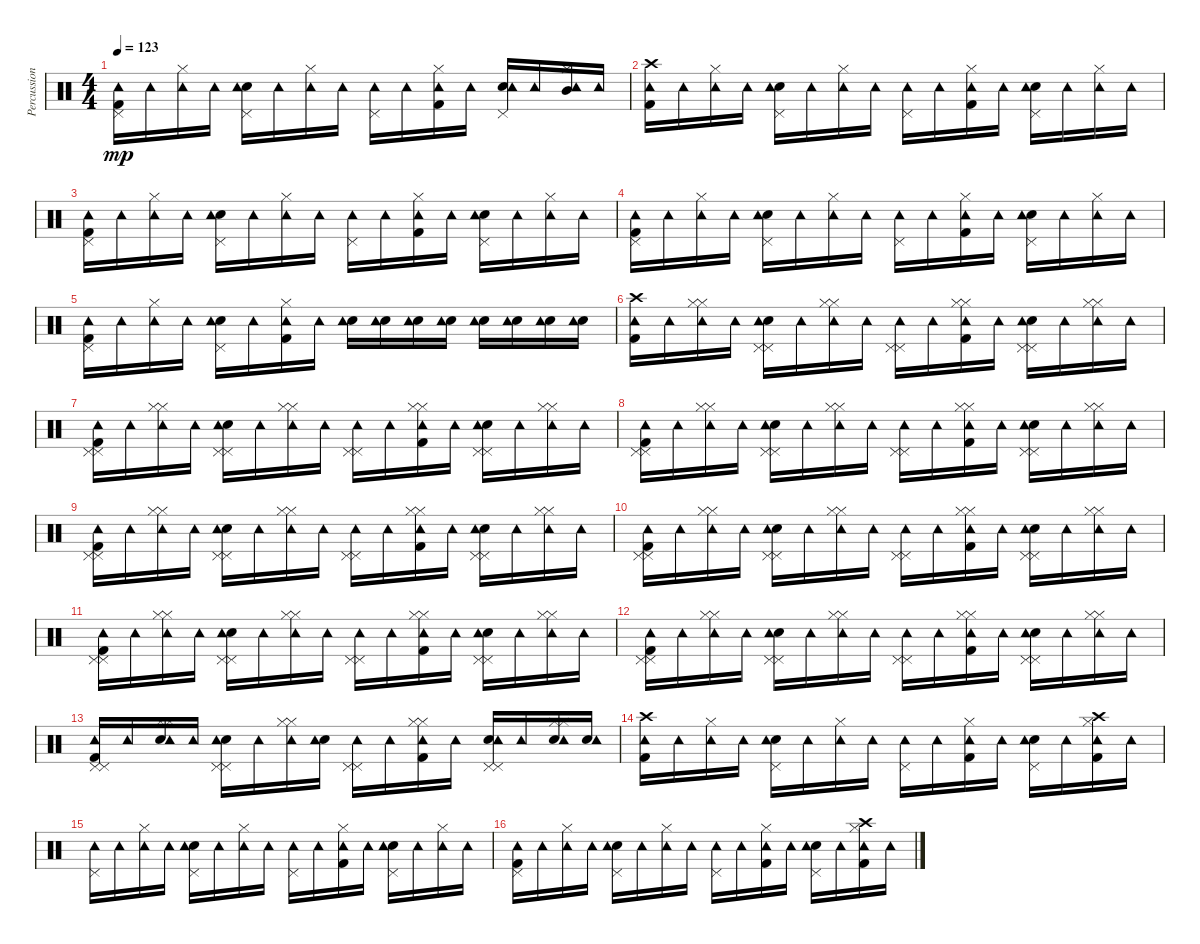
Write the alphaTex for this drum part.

\track ("Percussions" "Percussion") {instrument percussion}
\staff {score}
\articulation defaults
\ts (4 4)
\tempo 123
\clef neutral
\ks c
("Kick (hit) 2" "Pedal Hi-Hat (hit)" "Tambourine (hit)").16{dy mp} "Tambourine (hit)".16 ("Hi-Hat (closed)" "Tambourine (hit)").16 "Tambourine (hit)".16 ("Snare (hit) 2" "Pedal Hi-Hat (hit)" "Tambourine (hit)").16 "Tambourine (hit)".16 ("Hi-Hat (closed)" "Tambourine (hit)").16 "Tambourine (hit)".16 ("Pedal Hi-Hat (hit)" "Tambourine (hit)").16 "Tambourine (hit)".16 ("Kick (hit) 2" "Hi-Hat (closed)" "Tambourine (hit)").16 "Tambourine (hit)".16 ("Snare (hit) 2" "Pedal Hi-Hat (hit)" "Tambourine (hit)").16 "Tambourine (hit)".16 ("Hi-Hat (closed)" "Mid Tom (hit)" "Tambourine (hit)").16 "Tambourine (hit)".16 |
("Kick (hit) 2" "Crash high (hit)" "Tambourine (hit)").16 "Tambourine (hit)".16 ("Hi-Hat (closed)" "Tambourine (hit)").16 "Tambourine (hit)".16 ("Snare (hit) 2" "Pedal Hi-Hat (hit)" "Tambourine (hit)").16 "Tambourine (hit)".16 ("Hi-Hat (closed)" "Tambourine (hit)").16 "Tambourine (hit)".16 ("Pedal Hi-Hat (hit)" "Tambourine (hit)").16 "Tambourine (hit)".16 ("Kick (hit) 2" "Hi-Hat (closed)" "Tambourine (hit)").16 "Tambourine (hit)".16 ("Snare (hit) 2" "Pedal Hi-Hat (hit)" "Tambourine (hit)").16 "Tambourine (hit)".16 ("Hi-Hat (closed)" "Tambourine (hit)").16 "Tambourine (hit)".16 |
("Kick (hit) 2" "Pedal Hi-Hat (hit)" "Tambourine (hit)").16 "Tambourine (hit)".16 ("Hi-Hat (closed)" "Tambourine (hit)").16 "Tambourine (hit)".16 ("Snare (hit) 2" "Pedal Hi-Hat (hit)" "Tambourine (hit)").16 "Tambourine (hit)".16 ("Hi-Hat (closed)" "Tambourine (hit)").16 "Tambourine (hit)".16 ("Pedal Hi-Hat (hit)" "Tambourine (hit)").16 "Tambourine (hit)".16 ("Kick (hit) 2" "Hi-Hat (closed)" "Tambourine (hit)").16 "Tambourine (hit)".16 ("Snare (hit) 2" "Pedal Hi-Hat (hit)" "Tambourine (hit)").16 "Tambourine (hit)".16 ("Hi-Hat (closed)" "Tambourine (hit)").16 "Tambourine (hit)".16 |
("Kick (hit) 2" "Pedal Hi-Hat (hit)" "Tambourine (hit)").16 "Tambourine (hit)".16 ("Hi-Hat (closed)" "Tambourine (hit)").16 "Tambourine (hit)".16 ("Snare (hit) 2" "Pedal Hi-Hat (hit)" "Tambourine (hit)").16 "Tambourine (hit)".16 ("Hi-Hat (closed)" "Tambourine (hit)").16 "Tambourine (hit)".16 ("Pedal Hi-Hat (hit)" "Tambourine (hit)").16 "Tambourine (hit)".16 ("Kick (hit) 2" "Hi-Hat (closed)" "Tambourine (hit)").16 "Tambourine (hit)".16 ("Snare (hit) 2" "Pedal Hi-Hat (hit)" "Tambourine (hit)").16 "Tambourine (hit)".16 ("Hi-Hat (closed)" "Tambourine (hit)").16 "Tambourine (hit)".16 |
("Kick (hit) 2" "Pedal Hi-Hat (hit)" "Tambourine (hit)").16 "Tambourine (hit)".16 ("Hi-Hat (closed)" "Tambourine (hit)").16 "Tambourine (hit)".16 ("Snare (hit) 2" "Pedal Hi-Hat (hit)" "Tambourine (hit)").16 "Tambourine (hit)".16 ("Kick (hit) 2" "Hi-Hat (closed)" "Tambourine (hit)").16 "Tambourine (hit)".16 ("Snare (hit) 2" "Tambourine (hit)").16 ("Snare (hit) 2" "Tambourine (hit)").16 ("Snare (hit) 2" "Tambourine (hit)").16 ("Snare (hit) 2" "Tambourine (hit)").16 ("Snare (hit) 2" "Tambourine (hit)").16 ("Snare (hit) 2" "Tambourine (hit)").16 ("Snare (hit) 2" "Tambourine (hit)").16 ("Snare (hit) 2" "Tambourine (hit)").16 |
("Kick (hit) 2" "Crash high (hit)" "Tambourine (hit)").16 "Tambourine (hit)".16 ("Hi-Hat (closed)" "Hi-Hat (closed)" "Tambourine (hit)").16 "Tambourine (hit)".16 ("Snare (hit) 2" "Pedal Hi-Hat (hit)" "Pedal Hi-Hat (hit)" "Tambourine (hit)").16 "Tambourine (hit)".16 ("Hi-Hat (closed)" "Hi-Hat (closed)" "Tambourine (hit)").16 "Tambourine (hit)".16 ("Pedal Hi-Hat (hit)" "Pedal Hi-Hat (hit)" "Tambourine (hit)").16 "Tambourine (hit)".16 ("Kick (hit) 2" "Hi-Hat (closed)" "Hi-Hat (closed)" "Tambourine (hit)").16 "Tambourine (hit)".16 ("Snare (hit) 2" "Pedal Hi-Hat (hit)" "Pedal Hi-Hat (hit)" "Tambourine (hit)").16 "Tambourine (hit)".16 ("Hi-Hat (closed)" "Hi-Hat (closed)" "Tambourine (hit)").16 "Tambourine (hit)".16 |
("Kick (hit) 2" "Pedal Hi-Hat (hit)" "Pedal Hi-Hat (hit)" "Tambourine (hit)").16 "Tambourine (hit)".16 ("Hi-Hat (closed)" "Hi-Hat (closed)" "Tambourine (hit)").16 "Tambourine (hit)".16 ("Snare (hit) 2" "Pedal Hi-Hat (hit)" "Pedal Hi-Hat (hit)" "Tambourine (hit)").16 "Tambourine (hit)".16 ("Hi-Hat (closed)" "Hi-Hat (closed)" "Tambourine (hit)").16 "Tambourine (hit)".16 ("Pedal Hi-Hat (hit)" "Pedal Hi-Hat (hit)" "Tambourine (hit)").16 "Tambourine (hit)".16 ("Kick (hit) 2" "Hi-Hat (closed)" "Hi-Hat (closed)" "Tambourine (hit)").16 "Tambourine (hit)".16 ("Snare (hit) 2" "Pedal Hi-Hat (hit)" "Pedal Hi-Hat (hit)" "Tambourine (hit)").16 "Tambourine (hit)".16 ("Hi-Hat (closed)" "Hi-Hat (closed)" "Tambourine (hit)").16 "Tambourine (hit)".16 |
("Kick (hit) 2" "Pedal Hi-Hat (hit)" "Pedal Hi-Hat (hit)" "Tambourine (hit)").16 "Tambourine (hit)".16 ("Hi-Hat (closed)" "Hi-Hat (closed)" "Tambourine (hit)").16 "Tambourine (hit)".16 ("Snare (hit) 2" "Pedal Hi-Hat (hit)" "Pedal Hi-Hat (hit)" "Tambourine (hit)").16 "Tambourine (hit)".16 ("Hi-Hat (closed)" "Hi-Hat (closed)" "Tambourine (hit)").16 "Tambourine (hit)".16 ("Pedal Hi-Hat (hit)" "Pedal Hi-Hat (hit)" "Tambourine (hit)").16 "Tambourine (hit)".16 ("Kick (hit) 2" "Hi-Hat (closed)" "Hi-Hat (closed)" "Tambourine (hit)").16 "Tambourine (hit)".16 ("Snare (hit) 2" "Pedal Hi-Hat (hit)" "Pedal Hi-Hat (hit)" "Tambourine (hit)").16 "Tambourine (hit)".16 ("Hi-Hat (closed)" "Hi-Hat (closed)" "Tambourine (hit)").16 "Tambourine (hit)".16 |
("Kick (hit) 2" "Pedal Hi-Hat (hit)" "Pedal Hi-Hat (hit)" "Tambourine (hit)").16 "Tambourine (hit)".16 ("Hi-Hat (closed)" "Hi-Hat (closed)" "Tambourine (hit)").16 "Tambourine (hit)".16 ("Snare (hit) 2" "Pedal Hi-Hat (hit)" "Pedal Hi-Hat (hit)" "Tambourine (hit)").16 "Tambourine (hit)".16 ("Hi-Hat (closed)" "Hi-Hat (closed)" "Tambourine (hit)").16 "Tambourine (hit)".16 ("Pedal Hi-Hat (hit)" "Pedal Hi-Hat (hit)" "Tambourine (hit)").16 "Tambourine (hit)".16 ("Kick (hit) 2" "Hi-Hat (closed)" "Hi-Hat (closed)" "Tambourine (hit)").16 "Tambourine (hit)".16 ("Snare (hit) 2" "Pedal Hi-Hat (hit)" "Pedal Hi-Hat (hit)" "Tambourine (hit)").16 "Tambourine (hit)".16 ("Hi-Hat (closed)" "Hi-Hat (closed)" "Tambourine (hit)").16 "Tambourine (hit)".16 |
("Kick (hit) 2" "Pedal Hi-Hat (hit)" "Pedal Hi-Hat (hit)" "Tambourine (hit)").16 "Tambourine (hit)".16 ("Hi-Hat (closed)" "Hi-Hat (closed)" "Tambourine (hit)").16 "Tambourine (hit)".16 ("Snare (hit) 2" "Pedal Hi-Hat (hit)" "Pedal Hi-Hat (hit)" "Tambourine (hit)").16 "Tambourine (hit)".16 ("Hi-Hat (closed)" "Hi-Hat (closed)" "Tambourine (hit)").16 "Tambourine (hit)".16 ("Pedal Hi-Hat (hit)" "Pedal Hi-Hat (hit)" "Tambourine (hit)").16 "Tambourine (hit)".16 ("Kick (hit) 2" "Hi-Hat (closed)" "Hi-Hat (closed)" "Tambourine (hit)").16 "Tambourine (hit)".16 ("Snare (hit) 2" "Pedal Hi-Hat (hit)" "Pedal Hi-Hat (hit)" "Tambourine (hit)").16 "Tambourine (hit)".16 ("Hi-Hat (closed)" "Hi-Hat (closed)" "Tambourine (hit)").16 "Tambourine (hit)".16 |
("Kick (hit) 2" "Pedal Hi-Hat (hit)" "Pedal Hi-Hat (hit)" "Tambourine (hit)").16 "Tambourine (hit)".16 ("Hi-Hat (closed)" "Hi-Hat (closed)" "Tambourine (hit)").16 "Tambourine (hit)".16 ("Snare (hit) 2" "Pedal Hi-Hat (hit)" "Pedal Hi-Hat (hit)" "Tambourine (hit)").16 "Tambourine (hit)".16 ("Hi-Hat (closed)" "Hi-Hat (closed)" "Tambourine (hit)").16 "Tambourine (hit)".16 ("Pedal Hi-Hat (hit)" "Pedal Hi-Hat (hit)" "Tambourine (hit)").16 "Tambourine (hit)".16 ("Kick (hit) 2" "Hi-Hat (closed)" "Hi-Hat (closed)" "Tambourine (hit)").16 "Tambourine (hit)".16 ("Snare (hit) 2" "Pedal Hi-Hat (hit)" "Pedal Hi-Hat (hit)" "Tambourine (hit)").16 "Tambourine (hit)".16 ("Hi-Hat (closed)" "Hi-Hat (closed)" "Tambourine (hit)").16 "Tambourine (hit)".16 |
("Kick (hit) 2" "Pedal Hi-Hat (hit)" "Pedal Hi-Hat (hit)" "Tambourine (hit)").16 "Tambourine (hit)".16 ("Hi-Hat (closed)" "Hi-Hat (closed)" "Tambourine (hit)").16 "Tambourine (hit)".16 ("Snare (hit) 2" "Pedal Hi-Hat (hit)" "Pedal Hi-Hat (hit)" "Tambourine (hit)").16 "Tambourine (hit)".16 ("Hi-Hat (closed)" "Hi-Hat (closed)" "Tambourine (hit)").16 "Tambourine (hit)".16 ("Pedal Hi-Hat (hit)" "Pedal Hi-Hat (hit)" "Tambourine (hit)").16 "Tambourine (hit)".16 ("Kick (hit) 2" "Hi-Hat (closed)" "Hi-Hat (closed)" "Tambourine (hit)").16 "Tambourine (hit)".16 ("Snare (hit) 2" "Pedal Hi-Hat (hit)" "Pedal Hi-Hat (hit)" "Tambourine (hit)").16 "Tambourine (hit)".16 ("Hi-Hat (closed)" "Hi-Hat (closed)" "Tambourine (hit)").16 "Tambourine (hit)".16 |
("Kick (hit) 2" "Pedal Hi-Hat (hit)" "Pedal Hi-Hat (hit)" "Tambourine (hit)").16 "Tambourine (hit)".16 ("Snare (hit) 2" "Hi-Hat (closed)" "Hi-Hat (closed)" "Tambourine (hit)").16 "Tambourine (hit)".16 ("Snare (hit) 2" "Pedal Hi-Hat (hit)" "Pedal Hi-Hat (hit)" "Tambourine (hit)").16 "Tambourine (hit)".16 ("Hi-Hat (closed)" "Hi-Hat (closed)" "Tambourine (hit)").16 ("Snare (hit) 2" "Tambourine (hit)").16 ("Pedal Hi-Hat (hit)" "Pedal Hi-Hat (hit)" "Tambourine (hit)").16 "Tambourine (hit)".16 ("Kick (hit) 2" "Hi-Hat (closed)" "Hi-Hat (closed)" "Tambourine (hit)").16 "Tambourine (hit)".16 ("Snare (hit) 2" "Pedal Hi-Hat (hit)" "Pedal Hi-Hat (hit)" "Tambourine (hit)").16 "Tambourine (hit)".16 ("Snare (hit) 2" "Hi-Hat (closed)" "Hi-Hat (closed)" "Tambourine (hit)").16 ("Snare (hit) 2" "Tambourine (hit)").16 |
("Kick (hit) 2" "Crash high (hit)" "Tambourine (hit)").16 "Tambourine (hit)".16 ("Hi-Hat (closed)" "Tambourine (hit)").16 "Tambourine (hit)".16 ("Snare (hit) 2" "Pedal Hi-Hat (hit)" "Tambourine (hit)").16 "Tambourine (hit)".16 ("Hi-Hat (closed)" "Tambourine (hit)").16 "Tambourine (hit)".16 ("Pedal Hi-Hat (hit)" "Tambourine (hit)").16 "Tambourine (hit)".16 ("Kick (hit) 2" "Hi-Hat (closed)" "Tambourine (hit)").16 "Tambourine (hit)".16 ("Snare (hit) 2" "Pedal Hi-Hat (hit)" "Tambourine (hit)").16 "Tambourine (hit)".16 ("Kick (hit) 2" "Hi-Hat (closed)" "Crash high (hit)" "Tambourine (hit)").16 "Tambourine (hit)".16 |
("Pedal Hi-Hat (hit)" "Tambourine (hit)").16 "Tambourine (hit)".16 ("Hi-Hat (closed)" "Tambourine (hit)").16 "Tambourine (hit)".16 ("Snare (hit) 2" "Pedal Hi-Hat (hit)" "Tambourine (hit)").16 "Tambourine (hit)".16 ("Hi-Hat (closed)" "Tambourine (hit)").16 "Tambourine (hit)".16 ("Pedal Hi-Hat (hit)" "Tambourine (hit)").16 "Tambourine (hit)".16 ("Kick (hit) 2" "Hi-Hat (closed)" "Tambourine (hit)").16 "Tambourine (hit)".16 ("Snare (hit) 2" "Pedal Hi-Hat (hit)" "Tambourine (hit)").16 "Tambourine (hit)".16 ("Hi-Hat (closed)" "Tambourine (hit)").16 "Tambourine (hit)".16 |
("Kick (hit) 2" "Pedal Hi-Hat (hit)" "Tambourine (hit)").16 "Tambourine (hit)".16 ("Hi-Hat (closed)" "Tambourine (hit)").16 "Tambourine (hit)".16 ("Snare (hit) 2" "Pedal Hi-Hat (hit)" "Tambourine (hit)").16 "Tambourine (hit)".16 ("Hi-Hat (closed)" "Tambourine (hit)").16 "Tambourine (hit)".16 ("Pedal Hi-Hat (hit)" "Tambourine (hit)").16 "Tambourine (hit)".16 ("Kick (hit) 2" "Hi-Hat (closed)" "Tambourine (hit)").16 "Tambourine (hit)".16 ("Snare (hit) 2" "Pedal Hi-Hat (hit)" "Tambourine (hit)").16 "Tambourine (hit)".16 ("Kick (hit) 2" "Hi-Hat (closed)" "Crash high (hit)" "Tambourine (hit)").16 "Tambourine (hit)".16
